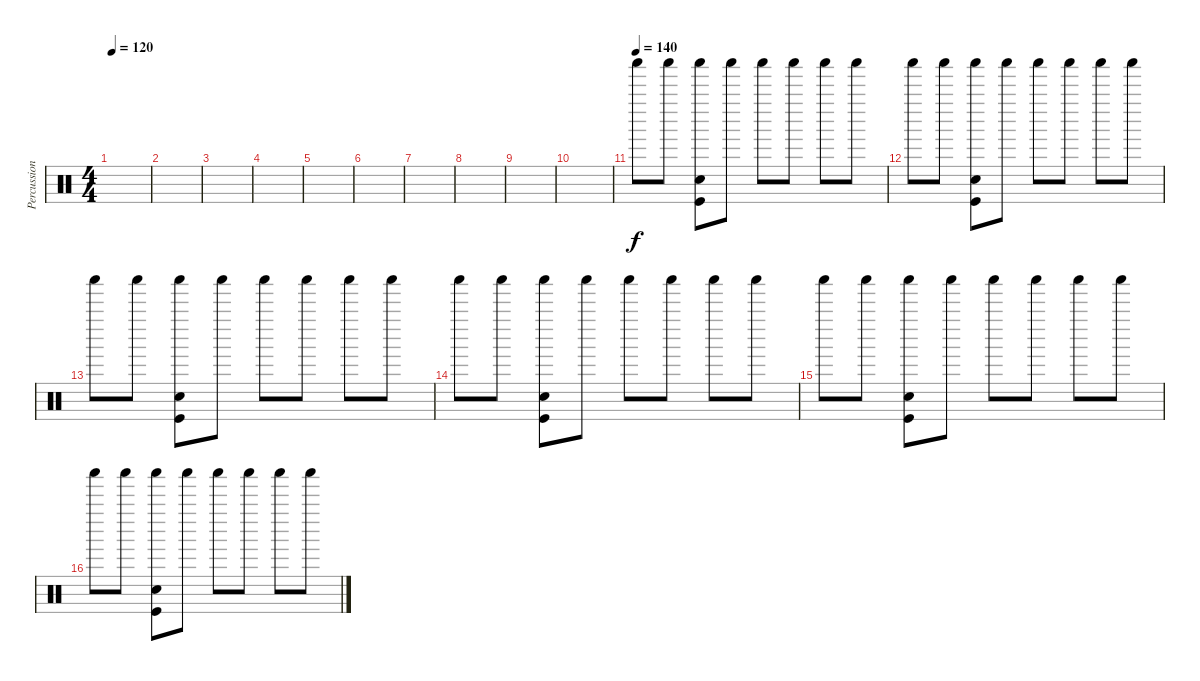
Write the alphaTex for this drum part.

\track ("Percussion" "Percussion") {instrument percussion}
\staff {score}
\articulation defaults
\ts (4 4)
\tempo 120
\clef neutral
\ks c
|
|
|
|
|
|
|
|
|
|
\tempo (140)
"Shaker (hit)".8 "Shaker (hit)".8 ("Shaker (hit)" "Snare (hit) 2" "Kick (hit)").8 "Shaker (hit)".8 "Shaker (hit)".8 "Shaker (hit)".8 "Shaker (hit)".8 "Shaker (hit)".8 |
"Shaker (hit)".8 "Shaker (hit)".8 ("Shaker (hit)" "Snare (hit) 2" "Kick (hit)").8 "Shaker (hit)".8 "Shaker (hit)".8 "Shaker (hit)".8 "Shaker (hit)".8 "Shaker (hit)".8 |
"Shaker (hit)".8 "Shaker (hit)".8 ("Shaker (hit)" "Snare (hit) 2" "Kick (hit)").8 "Shaker (hit)".8 "Shaker (hit)".8 "Shaker (hit)".8 "Shaker (hit)".8 "Shaker (hit)".8 |
"Shaker (hit)".8 "Shaker (hit)".8 ("Shaker (hit)" "Snare (hit) 2" "Kick (hit)").8 "Shaker (hit)".8 "Shaker (hit)".8 "Shaker (hit)".8 "Shaker (hit)".8 "Shaker (hit)".8 |
"Shaker (hit)".8 "Shaker (hit)".8 ("Shaker (hit)" "Snare (hit) 2" "Kick (hit)").8 "Shaker (hit)".8 "Shaker (hit)".8 "Shaker (hit)".8 "Shaker (hit)".8 "Shaker (hit)".8 |
"Shaker (hit)".8 "Shaker (hit)".8 ("Shaker (hit)" "Snare (hit) 2" "Kick (hit)").8 "Shaker (hit)".8 "Shaker (hit)".8 "Shaker (hit)".8 "Shaker (hit)".8 "Shaker (hit)".8
